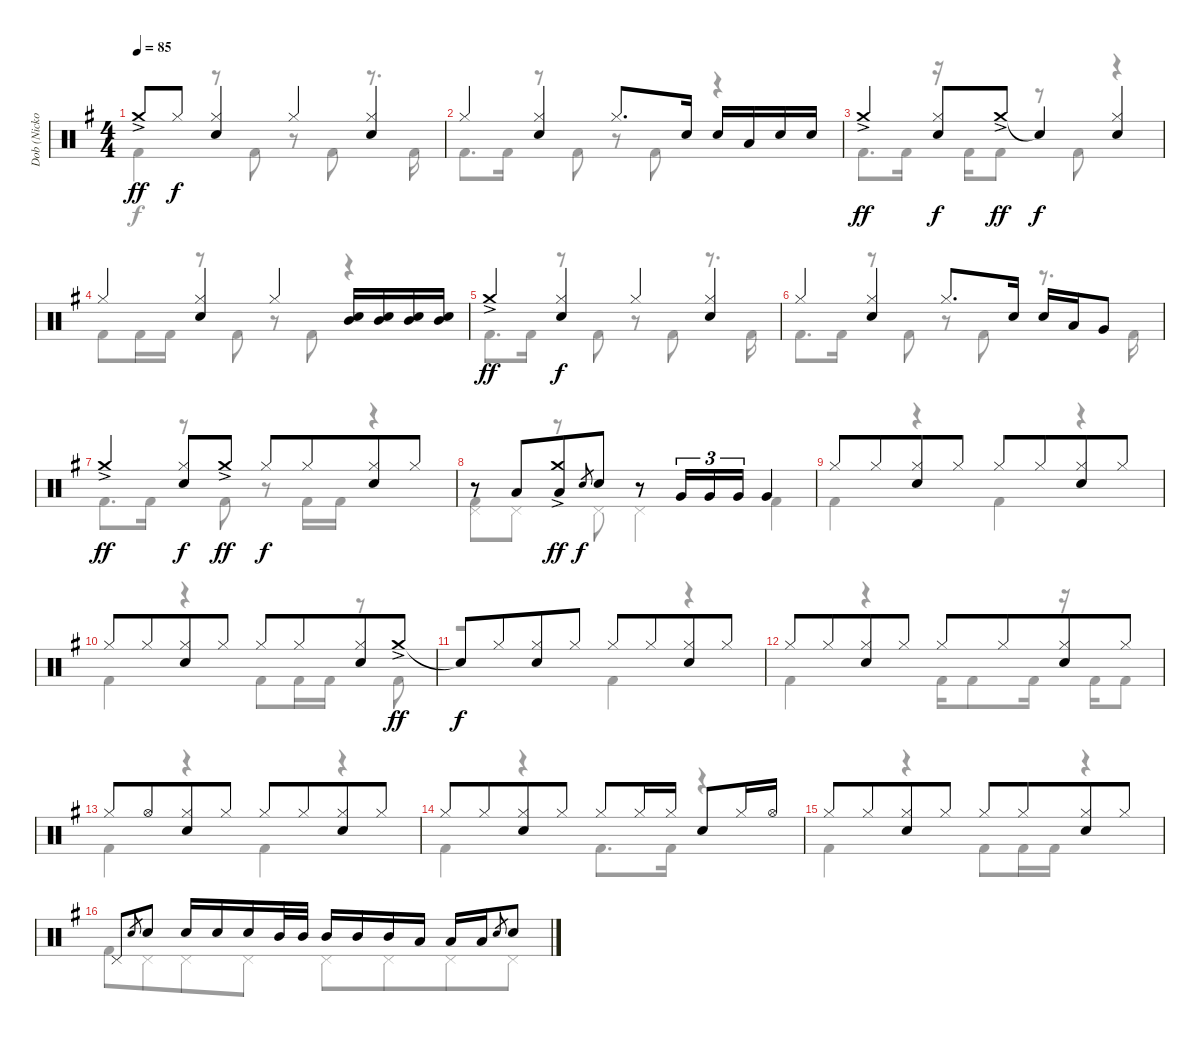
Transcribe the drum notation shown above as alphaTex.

\track ("Dob (Nicko McBrain)" "Dob (Nicko") {instrument percussion}
\staff {score}
\articulation defaults
\voice
\ts (4 4)
\tempo 85
\clef neutral
\ks g "Crash medium (hit)"{ac}.8{dy ff} "Hi-Hat (closed)".8{dy f}
("Hi-Hat (closed)" "Electric Snare (hit)").4 "Hi-Hat (closed)".4 ("Hi-Hat (closed)" "Electric Snare (hit)").4 |
"Hi-Hat (closed)".4 ("Hi-Hat (closed)" "Electric Snare (hit)").4 "Hi-Hat (closed)".8{d} "Electric Snare (hit)".16 "Electric Snare (hit)".16 "Low Tom (hit)".16 "Electric Snare (hit)".16 "Electric Snare (hit)".16 |
"Crash medium (hit)"{ac}.4{dy ff} ("Hi-Hat (closed)" "Electric Snare (hit)").8{dy f} "Crash medium (hit)"{ac}.8{dy ff} "Snare (hit)"{t}.4{dy f} ("Hi-Hat (closed)" "Electric Snare (hit)").4 |
"Hi-Hat (closed)".4 ("Hi-Hat (closed)" "Electric Snare (hit)").4 "Hi-Hat (closed)".4 ("Mid Tom (hit)" "Electric Snare (hit)").16 ("Mid Tom (hit)" "Electric Snare (hit)").16 ("Mid Tom (hit)" "Electric Snare (hit)").16 ("Mid Tom (hit)" "Electric Snare (hit)").16 |
"Crash medium (hit)"{ac}.4{dy ff} ("Hi-Hat (closed)" "Electric Snare (hit)").4{dy f} "Hi-Hat (closed)".4 ("Hi-Hat (closed)" "Electric Snare (hit)").4 |
"Hi-Hat (closed)".4 ("Hi-Hat (closed)" "Electric Snare (hit)").4 "Hi-Hat (closed)".8{d} "Electric Snare (hit)".16 "Electric Snare (hit)".16 "Low Tom (hit)".16 "Very Low Tom (hit)".8 |
"Crash medium (hit)"{ac}.4{dy ff} ("Hi-Hat (closed)" "Electric Snare (hit)").8{dy f} "Crash medium (hit)"{ac}.8{dy ff} "Hi-Hat (closed)".8{dy f} "Hi-Hat (closed)".8{beam merge} ("Hi-Hat (closed)" "Electric Snare (hit)").8 "Hi-Hat (closed)".8 |
r.8 "Low Tom (hit)".8{beam merge} ("Crash medium (hit)"{ac} "Low Tom (hit)").8{dy ff} "Electric Snare (hit)".8{gr dy f} "Electric Snare (hit)".8 r.8 "Very Low Tom (hit)".16{tu (3 2)} "Very Low Tom (hit)".16{tu (3 2)} "Very Low Tom (hit)".16{tu (3 2)} "Very Low Tom (hit)".4 |
"Hi-Hat (closed)".8 "Hi-Hat (closed)".8{beam merge} ("Hi-Hat (closed)" "Electric Snare (hit)").8 "Hi-Hat (closed)".8 "Hi-Hat (closed)".8 "Hi-Hat (closed)".8{beam merge} ("Hi-Hat (closed)" "Electric Snare (hit)").8 "Hi-Hat (closed)".8 |
"Hi-Hat (closed)".8 "Hi-Hat (closed)".8{beam merge} ("Hi-Hat (closed)" "Electric Snare (hit)").8 "Hi-Hat (closed)".8 "Hi-Hat (closed)".8 "Hi-Hat (closed)".8{beam merge} ("Hi-Hat (closed)" "Electric Snare (hit)").8 "Crash medium (hit)"{ac}.8{dy ff} |
"Snare (hit)"{t}.8{dy f} "Hi-Hat (closed)".8{beam merge} ("Hi-Hat (closed)" "Electric Snare (hit)").8 "Hi-Hat (closed)".8 "Hi-Hat (closed)".8 "Hi-Hat (closed)".8{beam merge} ("Hi-Hat (closed)" "Electric Snare (hit)").8 "Hi-Hat (closed)".8 |
"Hi-Hat (closed)".8 "Hi-Hat (closed)".8{beam merge} ("Hi-Hat (closed)" "Electric Snare (hit)").8 "Hi-Hat (closed)".8 "Hi-Hat (closed)".8 "Hi-Hat (closed)".8{beam merge} ("Hi-Hat (closed)" "Electric Snare (hit)").8 "Hi-Hat (closed)".8 |
"Hi-Hat (closed)".8 "Hi-Hat (open)".8{beam merge} ("Hi-Hat (closed)" "Electric Snare (hit)").8 "Hi-Hat (closed)".8 "Hi-Hat (closed)".8 "Hi-Hat (closed)".8{beam merge} ("Hi-Hat (closed)" "Electric Snare (hit)").8 "Hi-Hat (closed)".8 |
"Hi-Hat (closed)".8 "Hi-Hat (closed)".8{beam merge} ("Hi-Hat (closed)" "Electric Snare (hit)").8 "Hi-Hat (closed)".8 "Hi-Hat (closed)".8 "Hi-Hat (closed)".16 "Hi-Hat (closed)".16 "Electric Snare (hit)".8 "Hi-Hat (closed)".16 "Hi-Hat (open)".16 |
"Hi-Hat (closed)".8 "Hi-Hat (closed)".8{beam merge} ("Hi-Hat (closed)" "Electric Snare (hit)").8 "Hi-Hat (closed)".8 "Hi-Hat (closed)".8 "Hi-Hat (closed)".8{beam merge} ("Hi-Hat (closed)" "Electric Snare (hit)").8 "Hi-Hat (closed)".8 |
"Pedal Hi-Hat (hit)".8 "Electric Snare (hit)".8{gr} "Electric Snare (hit)".8 "Electric Snare (hit)".16 "Electric Snare (hit)".16 "Electric Snare (hit)".16 "Mid Tom (hit)".32 "Mid Tom (hit)".32 "Mid Tom (hit)".16 "Mid Tom (hit)".16 "Mid Tom (hit)".16 "Low Tom (hit)".16 "Low Tom (hit)".16 "Low Tom (hit)".16 "Electric Snare (hit)".8{gr} "Electric Snare (hit)".8
\voice
\clef neutral
\ottava regular
\simile none
\ks g "Kick (hit) 2".4{dy f}
r.8 "Kick (hit) 2".8 r.8 "Kick (hit) 2".8 r.8{d} "Kick (hit) 2".16 |
"Kick (hit) 2".8{d} "Kick (hit) 2".16 r.8 "Kick (hit) 2".8 r.8 "Kick (hit) 2".8 r.4 |
"Kick (hit) 2".8{d} "Kick (hit) 2".16 r.16 "Kick (hit) 2".16 "Kick (hit) 2".8 r.8 "Kick (hit) 2".8 r.4 |
"Kick (hit) 2".8 "Kick (hit) 2".16 "Kick (hit) 2".16 r.8 "Kick (hit) 2".8 r.8 "Kick (hit) 2".8 r.4 |
"Kick (hit) 2".8{d} "Kick (hit) 2".16 r.8 "Kick (hit) 2".8 r.8 "Kick (hit) 2".8 r.8{d} "Kick (hit) 2".16 |
"Kick (hit) 2".8{d} "Kick (hit) 2".16 r.8 "Kick (hit) 2".8 r.8 "Kick (hit) 2".8 r.8{d} "Kick (hit) 2".16 |
"Kick (hit) 2".8{d} "Kick (hit) 2".16 r.8 "Kick (hit) 2".8 r.8 "Kick (hit) 2".16 "Kick (hit) 2".16 r.4 |
("Kick (hit) 2" "Pedal Hi-Hat (hit)").8 "Pedal Hi-Hat (hit)".8 r.8 "Pedal Hi-Hat (hit)".8 "Pedal Hi-Hat (hit)".4 "Kick (hit) 2".4 |
"Kick (hit) 2".4 r.4 "Kick (hit) 2".4 r.4 |
"Kick (hit) 2".4 r.4 "Kick (hit) 2".8 "Kick (hit) 2".16 "Kick (hit) 2".16 r.8 "Kick (hit) 2".8 |
r.2 "Kick (hit) 2".4 r.4 |
"Kick (hit) 2".4 r.4 "Kick (hit) 2".16 "Kick (hit) 2".8 "Kick (hit) 2".16 r.16 "Kick (hit) 2".16 "Kick (hit) 2".8 |
"Kick (hit) 2".4 r.4 "Kick (hit) 2".4 r.4 |
"Kick (hit) 2".4 r.4 "Kick (hit) 2".8{d} "Kick (hit) 2".16 r.4 |
"Kick (hit) 2".4 r.4 "Kick (hit) 2".8 "Kick (hit) 2".16 "Kick (hit) 2".16 r.4 |
"Kick (hit) 2".8 "Pedal Hi-Hat (hit)".8{beam merge} "Pedal Hi-Hat (hit)".8 "Pedal Hi-Hat (hit)".8 "Pedal Hi-Hat (hit)".8 "Pedal Hi-Hat (hit)".8{beam merge} "Pedal Hi-Hat (hit)".8 "Pedal Hi-Hat (hit)".8
